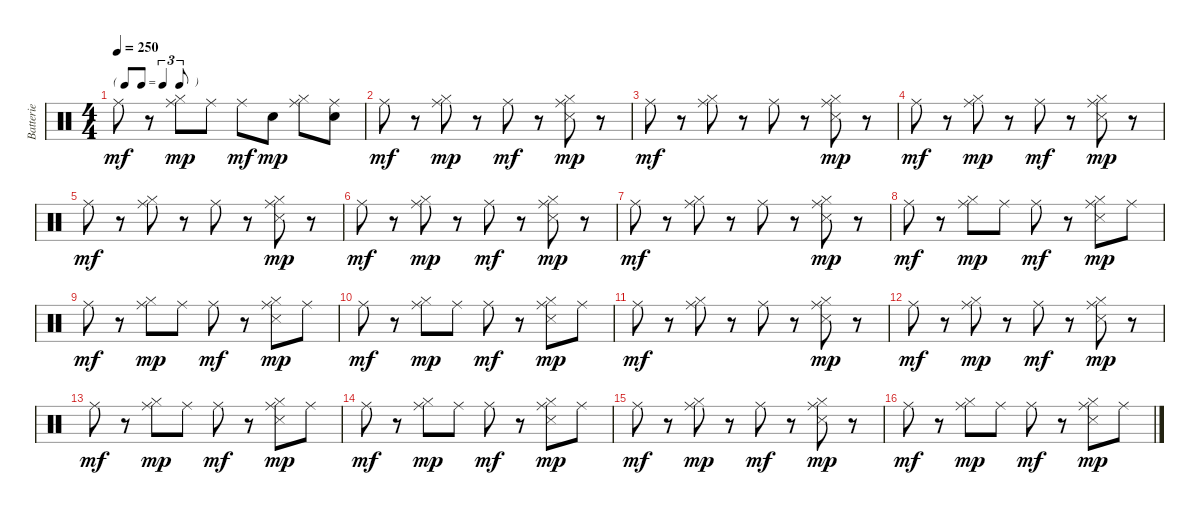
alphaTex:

\track ("Batterie" "Batterie") {instrument percussion}
\staff {score}
\articulation defaults
\ts (4 4)
\tf triplet8th
\tempo 250
\clef neutral
\ks c "Ride (middle)".8{dy mf}
r.8 ("Hi-Hat (closed)" "Ride (middle)").8{dy mp} "Ride (middle)".8 "Ride (middle)".8{dy mf} "Snare (hit) 2".8{dy mp} ("Hi-Hat (closed)" "Ride (middle)").8 ("Snare (hit) 2" "Ride (middle)").8 |
"Ride (middle)".8{dy mf} r.8 ("Hi-Hat (closed)" "Ride (middle)").8{dy mp} r.8 "Ride (middle)".8{dy mf} r.8 ("Hi-Hat (closed)" "Snare (side stick) 3" "Ride (middle)").8{dy mp} r.8 |
"Ride (middle)".8{dy mf} r.8 ("Hi-Hat (closed)" "Ride (middle)").8 r.8 "Ride (middle)".8 r.8 ("Hi-Hat (closed)" "Snare (side stick) 3" "Ride (middle)").8{dy mp} r.8 |
"Ride (middle)".8{dy mf} r.8 ("Hi-Hat (closed)" "Ride (middle)").8{dy mp} r.8 "Ride (middle)".8{dy mf} r.8 ("Hi-Hat (closed)" "Snare (side stick) 3" "Ride (middle)").8{dy mp} r.8 |
"Ride (middle)".8{dy mf} r.8 ("Hi-Hat (closed)" "Ride (middle)").8 r.8 "Ride (middle)".8 r.8 ("Hi-Hat (closed)" "Snare (side stick) 3" "Ride (middle)").8{dy mp} r.8 |
"Ride (middle)".8{dy mf} r.8 ("Hi-Hat (closed)" "Ride (middle)").8{dy mp} r.8 "Ride (middle)".8{dy mf} r.8 ("Hi-Hat (closed)" "Snare (side stick) 3" "Ride (middle)").8{dy mp} r.8 |
"Ride (middle)".8{dy mf} r.8 ("Hi-Hat (closed)" "Ride (middle)").8 r.8 "Ride (middle)".8 r.8 ("Hi-Hat (closed)" "Snare (side stick) 3" "Ride (middle)").8{dy mp} r.8 |
"Ride (middle)".8{dy mf} r.8 ("Hi-Hat (closed)" "Ride (middle)").8{dy mp} "Ride (middle)".8 "Ride (middle)".8{dy mf} r.8 ("Hi-Hat (closed)" "Snare (side stick) 3" "Ride (middle)").8{dy mp} "Ride (middle)".8 |
"Ride (middle)".8{dy mf} r.8 ("Hi-Hat (closed)" "Ride (middle)").8{dy mp} "Ride (middle)".8 "Ride (middle)".8{dy mf} r.8 ("Hi-Hat (closed)" "Snare (side stick) 3" "Ride (middle)").8{dy mp} "Ride (middle)".8 |
"Ride (middle)".8{dy mf} r.8 ("Hi-Hat (closed)" "Ride (middle)").8{dy mp} "Ride (middle)".8 "Ride (middle)".8{dy mf} r.8 ("Hi-Hat (closed)" "Snare (side stick) 3" "Ride (middle)").8{dy mp} "Ride (middle)".8 |
"Ride (middle)".8{dy mf} r.8 ("Hi-Hat (closed)" "Ride (middle)").8 r.8 "Ride (middle)".8 r.8 ("Hi-Hat (closed)" "Snare (side stick) 3" "Ride (middle)").8{dy mp} r.8 |
"Ride (middle)".8{dy mf} r.8 ("Hi-Hat (closed)" "Ride (middle)").8{dy mp} r.8 "Ride (middle)".8{dy mf} r.8 ("Hi-Hat (closed)" "Snare (side stick) 3" "Ride (middle)").8{dy mp} r.8 |
"Ride (middle)".8{dy mf} r.8 ("Hi-Hat (closed)" "Ride (middle)").8{dy mp} "Ride (middle)".8 "Ride (middle)".8{dy mf} r.8 ("Hi-Hat (closed)" "Snare (side stick) 3" "Ride (middle)").8{dy mp} "Ride (middle)".8 |
"Ride (middle)".8{dy mf} r.8 ("Hi-Hat (closed)" "Ride (middle)").8{dy mp} "Ride (middle)".8 "Ride (middle)".8{dy mf} r.8 ("Hi-Hat (closed)" "Snare (side stick) 3" "Ride (middle)").8{dy mp} "Ride (middle)".8 |
"Ride (middle)".8{dy mf} r.8 ("Hi-Hat (closed)" "Ride (middle)").8{dy mp} r.8 "Ride (middle)".8{dy mf} r.8 ("Hi-Hat (closed)" "Snare (side stick) 3" "Ride (middle)").8{dy mp} r.8 |
"Ride (middle)".8{dy mf} r.8 ("Hi-Hat (closed)" "Ride (middle)").8{dy mp} "Ride (middle)".8 "Ride (middle)".8{dy mf} r.8 ("Hi-Hat (closed)" "Snare (side stick) 3" "Ride (middle)").8{dy mp} "Ride (middle)".8
